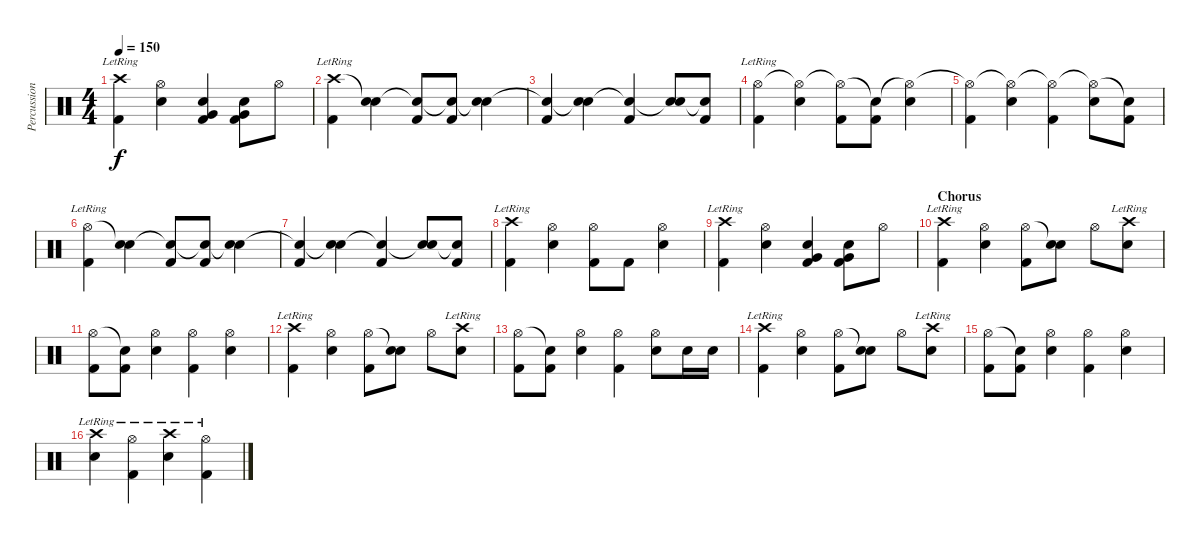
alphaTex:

\track ("Percussion" "Percussion") {instrument percussion}
\staff {score}
\articulation defaults
\ts (4 4)
\tempo 150
\clef neutral
\ks c
("Crash high (hit)"{lr} "Kick (hit) 2").4{dy f} ("Hi-Hat (open)" "Snare (hit) 2").4 ("Very Low Tom (hit)" "Snare (hit) 2" "Kick (hit) 2").4 ("Very Low Tom (hit)" "Snare (hit) 2" "Kick (hit) 2").8 "Hi-Hat (open)".8 |
("Crash high (hit)"{lr} "Kick (hit) 2").4 ("Snare (hit)"{t} "Snare (hit) 2").4 ("Snare (hit)"{t} "Kick (hit) 2").8 ("Snare (hit)"{t} "Kick (hit) 2").8 ("Snare (hit)"{t} "Snare (hit) 2").4 |
("Snare (hit)"{t} "Kick (hit) 2").4 ("Snare (hit)"{t} "Snare (hit) 2").4 ("Snare (hit)"{t} "Kick (hit) 2").4 ("Snare (hit)"{t} "Snare (hit) 2").8 ("Snare (hit)"{t} "Kick (hit) 2").8 |
("Hi-Hat (open)"{lr} "Kick (hit) 2").4 ("Hi-Hat (open)"{t} "Snare (hit) 2").4 ("Hi-Hat (open)"{t} "Kick (hit) 2").8 ("Snare (hit)"{t} "Kick (hit) 2").8 ("Hi-Hat (open)"{t} "Snare (hit) 2").4 |
("Hi-Hat (open)"{t} "Kick (hit) 2").4 ("Hi-Hat (open)"{t} "Snare (hit) 2").4 ("Hi-Hat (open)"{t} "Kick (hit) 2").4 ("Hi-Hat (open)"{t} "Snare (hit) 2").8 ("Snare (hit)"{t} "Kick (hit) 2").8 |
("Hi-Hat (open)"{lr} "Kick (hit) 2").4 ("Snare (hit)"{t} "Snare (hit) 2").4 ("Snare (hit)"{t} "Kick (hit) 2").8 ("Snare (hit)"{t} "Kick (hit) 2").8 ("Snare (hit)"{t} "Snare (hit) 2").4 |
("Snare (hit)"{t} "Kick (hit) 2").4 ("Snare (hit)"{t} "Snare (hit) 2").4 ("Snare (hit)"{t} "Kick (hit) 2").4 ("Snare (hit)"{t} "Snare (hit) 2").8 ("Snare (hit)"{t} "Kick (hit) 2").8 |
("Crash high (hit)"{lr} "Kick (hit) 2").4 ("Hi-Hat (open)" "Snare (hit) 2").4 ("Hi-Hat (open)" "Kick (hit) 2").8 "Kick (hit) 2".8 ("Hi-Hat (open)" "Snare (hit) 2").4 |
("Crash high (hit)"{lr} "Kick (hit) 2").4 ("Hi-Hat (open)" "Snare (hit) 2").4 ("Very Low Tom (hit)" "Snare (hit) 2" "Kick (hit) 2").4 ("Very Low Tom (hit)" "Snare (hit) 2" "Kick (hit) 2").8 "Hi-Hat (open)".8 |
\section ("" "Chorus")
("Crash high (hit)"{lr} "Kick (hit) 2").4 ("Hi-Hat (open)" "Snare (hit) 2").4 ("Hi-Hat (open)" "Kick (hit) 2").8 ("Snare (hit)"{t} "Snare (hit) 2").8 "Hi-Hat (open)".8 ("Crash high (hit)"{lr} "Snare (hit) 2").8 |
("Hi-Hat (open)" "Kick (hit) 2").8 ("Snare (hit)"{t} "Kick (hit) 2").8 ("Hi-Hat (open)" "Snare (hit) 2").4 ("Hi-Hat (open)" "Kick (hit) 2").4 ("Hi-Hat (open)" "Snare (hit) 2").4 |
("Crash high (hit)"{lr} "Kick (hit) 2").4 ("Hi-Hat (open)" "Snare (hit) 2").4 ("Hi-Hat (open)" "Kick (hit) 2").8 ("Snare (hit)"{t} "Snare (hit) 2").8 "Hi-Hat (open)".8 ("Crash high (hit)"{lr} "Snare (hit) 2").8 |
("Hi-Hat (open)" "Kick (hit) 2").8 ("Snare (hit)"{t} "Kick (hit) 2").8 ("Hi-Hat (open)" "Snare (hit) 2").4 ("Hi-Hat (open)" "Kick (hit) 2").4 ("Hi-Hat (open)" "Snare (hit) 2").8 "Snare (hit) 2".16 "Snare (hit) 2".16 |
("Crash high (hit)"{lr} "Kick (hit) 2").4 ("Hi-Hat (open)" "Snare (hit) 2").4 ("Hi-Hat (open)" "Kick (hit) 2").8 ("Snare (hit)"{t} "Snare (hit) 2").8 "Hi-Hat (open)".8 ("Crash high (hit)"{lr} "Snare (hit) 2").8 |
("Hi-Hat (open)" "Kick (hit) 2").8 ("Snare (hit)"{t} "Kick (hit) 2").8 ("Hi-Hat (open)" "Snare (hit) 2").4 ("Hi-Hat (open)" "Kick (hit) 2").4 ("Hi-Hat (open)" "Snare (hit) 2").4 |
("Crash high (hit)"{lr} "Snare (hit) 2").4 ("Hi-Hat (open)"{lr} "Kick (hit) 2").4 ("Crash high (hit)"{lr} "Snare (hit) 2").4 ("Hi-Hat (open)"{lr} "Kick (hit) 2").4
